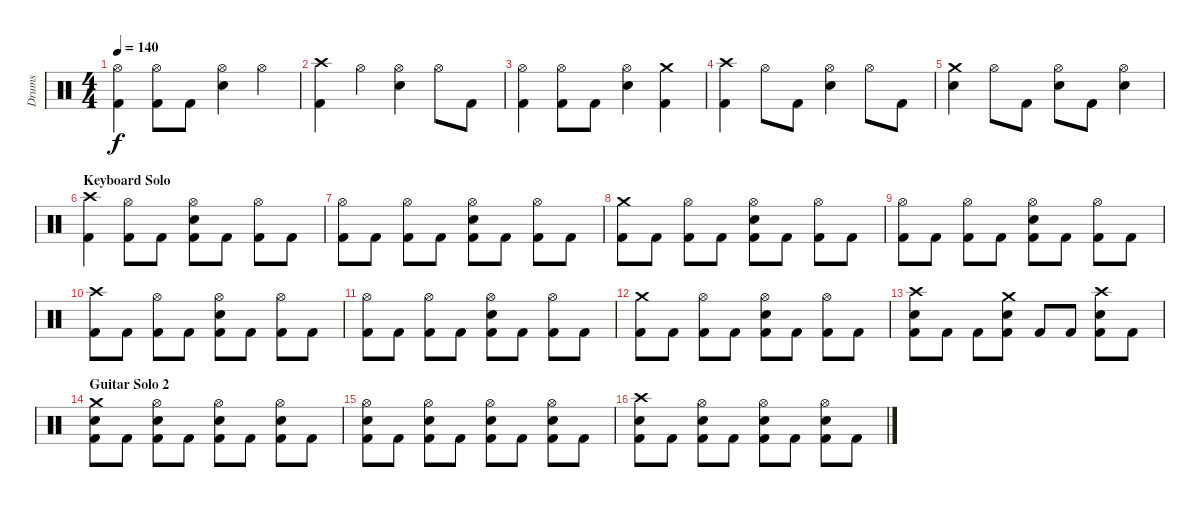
\track ("Drums" "Drums") {instrument percussion}
\staff {score}
\articulation defaults
\ts (4 4)
\tempo 140
\clef neutral
\ks c
("Hi-Hat (open)" "Kick (hit) 2").4{dy f} ("Hi-Hat (open)" "Kick (hit) 2").8 "Kick (hit) 2".8 ("Hi-Hat (open)" "Electric Snare (hit)").4 "Hi-Hat (open)".4 |
("Crash high (hit)" "Kick (hit) 2").4 "Hi-Hat (open)".4 ("Hi-Hat (open)" "Electric Snare (hit)").4 "Hi-Hat (open)".8 "Kick (hit) 2".8 |
("Hi-Hat (open)" "Kick (hit) 2").4 ("Hi-Hat (open)" "Kick (hit) 2").8 "Kick (hit) 2".8 ("Hi-Hat (open)" "Electric Snare (hit)").4 ("Crash medium (hit)" "Kick (hit) 2").4 |
("Crash high (hit)" "Kick (hit) 2").4 "Hi-Hat (open)".8 "Kick (hit) 2".8 ("Hi-Hat (open)" "Electric Snare (hit)").4 "Hi-Hat (open)".8 "Kick (hit) 2".8 |
("Crash medium (hit)" "Electric Snare (hit)").4 "Hi-Hat (open)".8 "Kick (hit) 2".8 ("Hi-Hat (open)" "Electric Snare (hit)").8 "Kick (hit) 2".8 ("Hi-Hat (open)" "Electric Snare (hit)").4 |
\section ("" "Keyboard Solo")
("Crash high (hit)" "Kick (hit) 2").4 ("Hi-Hat (open)" "Kick (hit) 2").8 "Kick (hit) 2".8 ("Hi-Hat (open)" "Electric Snare (hit)" "Kick (hit) 2").8 "Kick (hit) 2".8 ("Hi-Hat (open)" "Kick (hit) 2").8 "Kick (hit) 2".8 |
("Hi-Hat (open)" "Kick (hit) 2").8 "Kick (hit) 2".8 ("Hi-Hat (open)" "Kick (hit) 2").8 "Kick (hit) 2".8 ("Hi-Hat (open)" "Electric Snare (hit)" "Kick (hit) 2").8 "Kick (hit) 2".8 ("Hi-Hat (open)" "Kick (hit) 2").8 "Kick (hit) 2".8 |
("Crash medium (hit)" "Kick (hit) 2").8 "Kick (hit) 2".8 ("Hi-Hat (open)" "Kick (hit) 2").8 "Kick (hit) 2".8 ("Hi-Hat (open)" "Electric Snare (hit)" "Kick (hit) 2").8 "Kick (hit) 2".8 ("Hi-Hat (open)" "Kick (hit) 2").8 "Kick (hit) 2".8 |
("Hi-Hat (open)" "Kick (hit) 2").8 "Kick (hit) 2".8 ("Hi-Hat (open)" "Kick (hit) 2").8 "Kick (hit) 2".8 ("Hi-Hat (open)" "Electric Snare (hit)" "Kick (hit) 2").8 "Kick (hit) 2".8 ("Hi-Hat (open)" "Kick (hit) 2").8 "Kick (hit) 2".8 |
("Crash high (hit)" "Kick (hit) 2").8 "Kick (hit) 2".8 ("Hi-Hat (open)" "Kick (hit) 2").8 "Kick (hit) 2".8 ("Hi-Hat (open)" "Electric Snare (hit)" "Kick (hit) 2").8 "Kick (hit) 2".8 ("Hi-Hat (open)" "Kick (hit) 2").8 "Kick (hit) 2".8 |
("Hi-Hat (open)" "Kick (hit) 2").8 "Kick (hit) 2".8 ("Hi-Hat (open)" "Kick (hit) 2").8 "Kick (hit) 2".8 ("Hi-Hat (open)" "Electric Snare (hit)" "Kick (hit) 2").8 "Kick (hit) 2".8 ("Hi-Hat (open)" "Kick (hit) 2").8 "Kick (hit) 2".8 |
("Crash medium (hit)" "Kick (hit) 2").8 "Kick (hit) 2".8 ("Hi-Hat (open)" "Kick (hit) 2").8 "Kick (hit) 2".8 ("Hi-Hat (open)" "Electric Snare (hit)" "Kick (hit) 2").8 "Kick (hit) 2".8 ("Hi-Hat (open)" "Kick (hit) 2").8 "Kick (hit) 2".8 |
("Crash high (hit)" "Electric Snare (hit)" "Kick (hit) 2").8 "Kick (hit) 2".8 "Kick (hit) 2".8 ("Crash medium (hit)" "Electric Snare (hit)" "Kick (hit) 2").8 "Kick (hit) 2".8 "Kick (hit) 2".8 ("Crash high (hit)" "Electric Snare (hit)" "Kick (hit) 2").8 "Kick (hit) 2".8 |
\section ("" "Guitar Solo 2")
("Crash medium (hit)" "Electric Snare (hit)" "Kick (hit) 2").8 "Kick (hit) 2".8 ("Hi-Hat (open)" "Electric Snare (hit)" "Kick (hit) 2").8 "Kick (hit) 2".8 ("Hi-Hat (open)" "Electric Snare (hit)" "Kick (hit) 2").8 "Kick (hit) 2".8 ("Hi-Hat (open)" "Electric Snare (hit)" "Kick (hit) 2").8 "Kick (hit) 2".8 |
("Hi-Hat (open)" "Electric Snare (hit)" "Kick (hit) 2").8 "Kick (hit) 2".8 ("Hi-Hat (open)" "Electric Snare (hit)" "Kick (hit) 2").8 "Kick (hit) 2".8 ("Hi-Hat (open)" "Electric Snare (hit)" "Kick (hit) 2").8 "Kick (hit) 2".8 ("Hi-Hat (open)" "Electric Snare (hit)" "Kick (hit) 2").8 "Kick (hit) 2".8 |
("Crash high (hit)" "Electric Snare (hit)" "Kick (hit) 2").8 "Kick (hit) 2".8 ("Hi-Hat (open)" "Electric Snare (hit)" "Kick (hit) 2").8 "Kick (hit) 2".8 ("Hi-Hat (open)" "Electric Snare (hit)" "Kick (hit) 2").8 "Kick (hit) 2".8 ("Hi-Hat (open)" "Electric Snare (hit)" "Kick (hit) 2").8 "Kick (hit) 2".8
